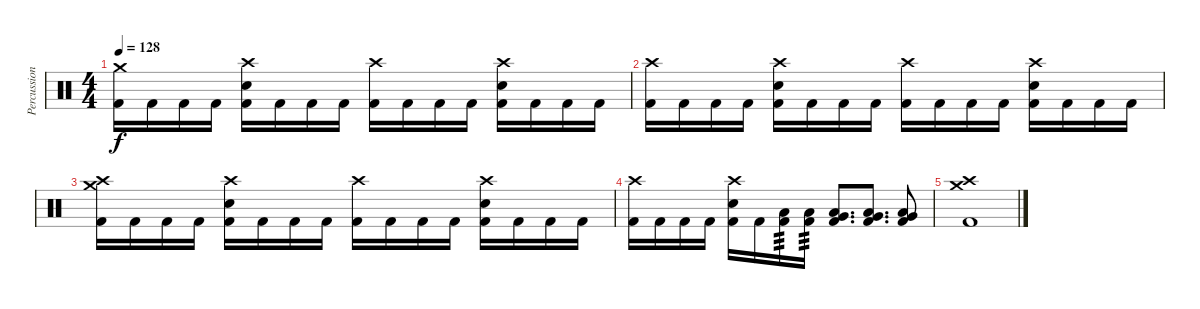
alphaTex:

\track ("Percussion" "Percussion") {instrument percussion}
\staff {score}
\articulation defaults
\ts (4 4)
\tempo 128
\clef neutral
\ks c
("Kick (hit) 2" "Crash medium (hit)").16{dy f} "Kick (hit) 2".16 "Kick (hit) 2".16 "Kick (hit) 2".16 ("Kick (hit) 2" "Electric Snare (hit)" "Crash high (hit)").16 "Kick (hit) 2".16 "Kick (hit) 2".16 "Kick (hit) 2".16 ("Kick (hit) 2" "Crash high (hit)").16 "Kick (hit) 2".16 "Kick (hit) 2".16 "Kick (hit) 2".16 ("Kick (hit) 2" "Electric Snare (hit)" "Crash high (hit)").16 "Kick (hit) 2".16 "Kick (hit) 2".16 "Kick (hit) 2".16 |
("Kick (hit) 2" "Crash high (hit)").16 "Kick (hit) 2".16 "Kick (hit) 2".16 "Kick (hit) 2".16 ("Kick (hit) 2" "Electric Snare (hit)" "Crash high (hit)").16 "Kick (hit) 2".16 "Kick (hit) 2".16 "Kick (hit) 2".16 ("Kick (hit) 2" "Crash high (hit)").16 "Kick (hit) 2".16 "Kick (hit) 2".16 "Kick (hit) 2".16 ("Kick (hit) 2" "Electric Snare (hit)" "Crash high (hit)").16 "Kick (hit) 2".16 "Kick (hit) 2".16 "Kick (hit) 2".16 |
("Kick (hit) 2" "Crash medium (hit)" "Crash high (hit)").16 "Kick (hit) 2".16 "Kick (hit) 2".16 "Kick (hit) 2".16 ("Kick (hit) 2" "Electric Snare (hit)" "Crash high (hit)").16 "Kick (hit) 2".16 "Kick (hit) 2".16 "Kick (hit) 2".16 ("Kick (hit) 2" "Crash high (hit)").16 "Kick (hit) 2".16 "Kick (hit) 2".16 "Kick (hit) 2".16 ("Kick (hit) 2" "Electric Snare (hit)" "Crash high (hit)").16 "Kick (hit) 2".16 "Kick (hit) 2".16 "Kick (hit) 2".16 |
("Kick (hit) 2" "Crash high (hit)").16 "Kick (hit) 2".16 "Kick (hit) 2".16 "Kick (hit) 2".16 ("Kick (hit) 2" "Electric Snare (hit)" "Crash high (hit)").16 "Kick (hit) 2".16 ("Kick (hit) 2" "Low Tom (hit)").16{tp 3} ("Kick (hit) 2" "Low Tom (hit)").16{tp 3} ("Kick (hit) 2" "Low Tom (hit)" "Very Low Tom (hit)").8{d} ("Kick (hit) 2" "Low Tom (hit)" "Very Low Tom (hit)").8{d} ("Kick (hit) 2" "Low Tom (hit)" "Very Low Tom (hit)").8 |
("Kick (hit) 2" "Crash medium (hit)" "Crash high (hit)").1
